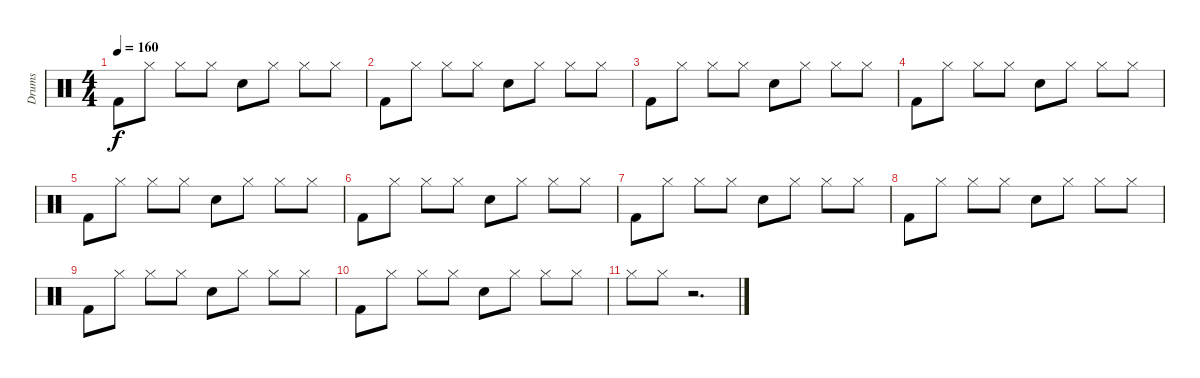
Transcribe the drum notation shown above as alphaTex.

\track ("Drums" "Drums") {instrument percussion}
\staff {score}
\articulation defaults
\ts (4 4)
\tempo 160
\clef neutral
\ks c "Kick (hit) 2".8{dy f} "Hi-Hat (closed)".8 "Hi-Hat (closed)".8 "Hi-Hat (closed)".8 "Electric Snare (hit)".8 "Hi-Hat (closed)".8 "Hi-Hat (closed)".8 "Hi-Hat (closed)".8
|
"Kick (hit) 2".8 "Hi-Hat (closed)".8 "Hi-Hat (closed)".8 "Hi-Hat (closed)".8 "Electric Snare (hit)".8 "Hi-Hat (closed)".8 "Hi-Hat (closed)".8 "Hi-Hat (closed)".8 |
"Kick (hit) 2".8 "Hi-Hat (closed)".8 "Hi-Hat (closed)".8 "Hi-Hat (closed)".8 "Electric Snare (hit)".8 "Hi-Hat (closed)".8 "Hi-Hat (closed)".8 "Hi-Hat (closed)".8 |
"Kick (hit) 2".8 "Hi-Hat (closed)".8 "Hi-Hat (closed)".8 "Hi-Hat (closed)".8 "Electric Snare (hit)".8 "Hi-Hat (closed)".8 "Hi-Hat (closed)".8 "Hi-Hat (closed)".8 |
"Kick (hit) 2".8 "Hi-Hat (closed)".8 "Hi-Hat (closed)".8 "Hi-Hat (closed)".8 "Electric Snare (hit)".8 "Hi-Hat (closed)".8 "Hi-Hat (closed)".8 "Hi-Hat (closed)".8 |
"Kick (hit) 2".8 "Hi-Hat (closed)".8 "Hi-Hat (closed)".8 "Hi-Hat (closed)".8 "Electric Snare (hit)".8 "Hi-Hat (closed)".8 "Hi-Hat (closed)".8 "Hi-Hat (closed)".8 |
"Kick (hit) 2".8 "Hi-Hat (closed)".8 "Hi-Hat (closed)".8 "Hi-Hat (closed)".8 "Electric Snare (hit)".8 "Hi-Hat (closed)".8 "Hi-Hat (closed)".8 "Hi-Hat (closed)".8 |
"Kick (hit) 2".8 "Hi-Hat (closed)".8 "Hi-Hat (closed)".8 "Hi-Hat (closed)".8 "Electric Snare (hit)".8 "Hi-Hat (closed)".8 "Hi-Hat (closed)".8 "Hi-Hat (closed)".8 |
"Kick (hit) 2".8 "Hi-Hat (closed)".8 "Hi-Hat (closed)".8 "Hi-Hat (closed)".8 "Electric Snare (hit)".8 "Hi-Hat (closed)".8 "Hi-Hat (closed)".8 "Hi-Hat (closed)".8 |
"Kick (hit) 2".8 "Hi-Hat (closed)".8 "Hi-Hat (closed)".8 "Hi-Hat (closed)".8 "Electric Snare (hit)".8 "Hi-Hat (closed)".8 "Hi-Hat (closed)".8 "Hi-Hat (closed)".8 |
"Hi-Hat (closed)".8 "Hi-Hat (closed)".8 r.2{d}
